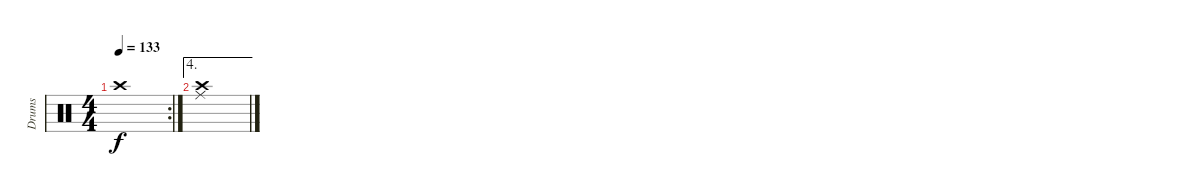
\track ("Drums" "Drums") {instrument percussion bank 4}
\staff {score}
\articulation defaults
\rc 2
\ts (4 4)
\tempo 133
\clef neutral
\ks c "Crash high (hit)".1{dy f}
|
\ae 4
("Crash high (hit)" "Ride (middle)").1
